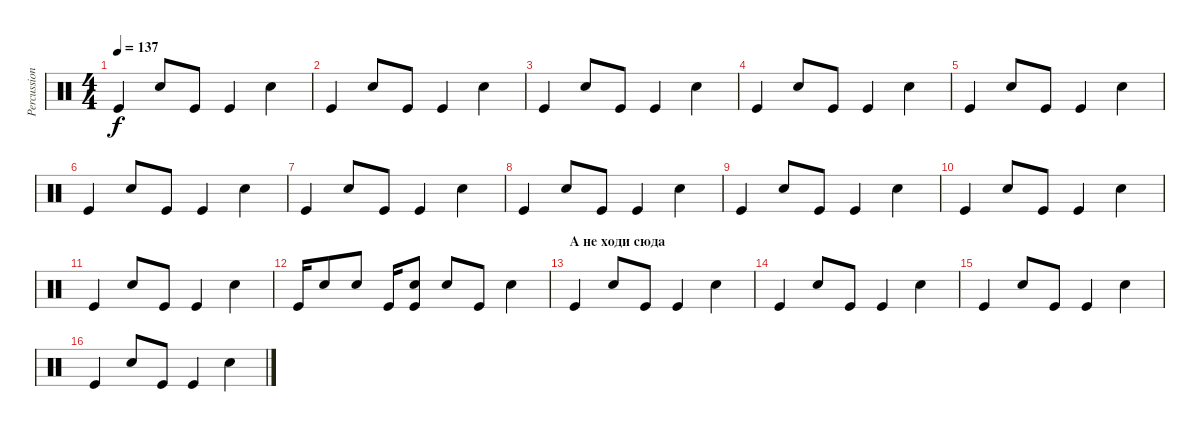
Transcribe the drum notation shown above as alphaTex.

\track ("Percussion" "Percussion") {instrument percussion}
\staff {score}
\articulation defaults
\ts (4 4)
\tempo 137
\clef neutral
\ks c "Kick (hit)".4{dy f} "Snare (hit) 2".8 "Kick (hit)".8 "Kick (hit)".4 "Snare (hit) 2".4
|
"Kick (hit)".4 "Snare (hit) 2".8 "Kick (hit)".8 "Kick (hit)".4 "Snare (hit) 2".4 |
"Kick (hit)".4 "Snare (hit) 2".8 "Kick (hit)".8 "Kick (hit)".4 "Snare (hit) 2".4 |
"Kick (hit)".4 "Snare (hit) 2".8 "Kick (hit)".8 "Kick (hit)".4 "Snare (hit) 2".4 |
"Kick (hit)".4 "Snare (hit) 2".8 "Kick (hit)".8 "Kick (hit)".4 "Snare (hit) 2".4 |
"Kick (hit)".4 "Snare (hit) 2".8 "Kick (hit)".8 "Kick (hit)".4 "Snare (hit) 2".4 |
"Kick (hit)".4 "Snare (hit) 2".8 "Kick (hit)".8 "Kick (hit)".4 "Snare (hit) 2".4 |
"Kick (hit)".4 "Snare (hit) 2".8 "Kick (hit)".8 "Kick (hit)".4 "Snare (hit) 2".4 |
"Kick (hit)".4 "Snare (hit) 2".8 "Kick (hit)".8 "Kick (hit)".4 "Snare (hit) 2".4 |
"Kick (hit)".4 "Snare (hit) 2".8 "Kick (hit)".8 "Kick (hit)".4 "Snare (hit) 2".4 |
"Kick (hit)".4 "Snare (hit) 2".8 "Kick (hit)".8 "Kick (hit)".4 "Snare (hit) 2".4 |
"Kick (hit)".16 "Snare (hit) 2".8 "Snare (hit) 2".8 "Kick (hit)".16 ("Snare (hit) 2" "Kick (hit)").8 "Snare (hit) 2".8 "Kick (hit)".8 "Snare (hit) 2".4 |
\section ("" "А не ходи сюда")
"Kick (hit)".4 "Snare (hit) 2".8 "Kick (hit)".8 "Kick (hit)".4 "Snare (hit) 2".4 |
"Kick (hit)".4 "Snare (hit) 2".8 "Kick (hit)".8 "Kick (hit)".4 "Snare (hit) 2".4 |
"Kick (hit)".4 "Snare (hit) 2".8 "Kick (hit)".8 "Kick (hit)".4 "Snare (hit) 2".4 |
"Kick (hit)".4 "Snare (hit) 2".8 "Kick (hit)".8 "Kick (hit)".4 "Snare (hit) 2".4
